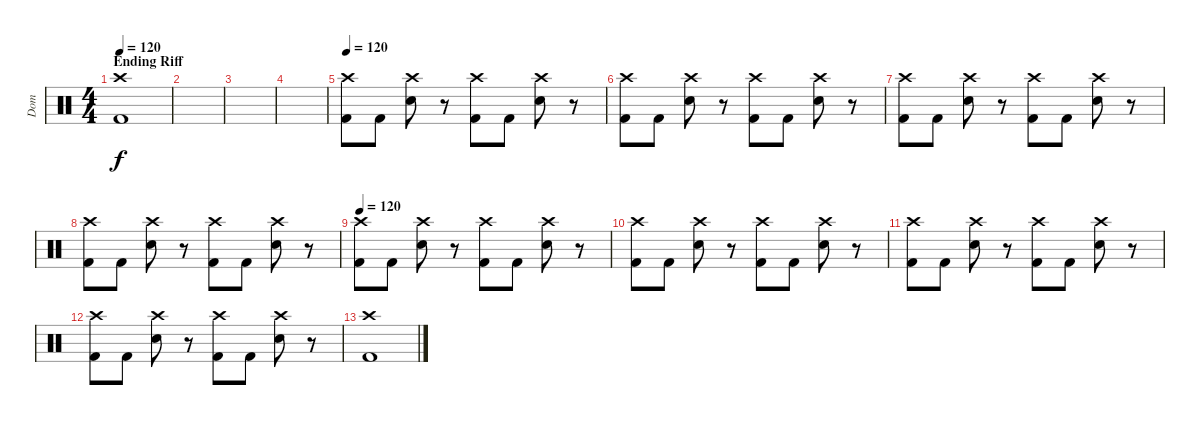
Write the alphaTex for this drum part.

\track ("Dom" "Dom") {instrument percussion}
\staff {score}
\articulation defaults
\ts (4 4)
\section ("" "Ending Riff")
\tempo 120
\clef neutral
\ks c
("Kick (hit) 2" "Crash high (hit)").1{dy f} |
|
|
|
\tempo 120
("Crash high (hit)" "Kick (hit) 2").8 "Kick (hit) 2".8 ("Crash high (hit)" "Electric Snare (hit)").8 r.8 ("Crash high (hit)" "Kick (hit) 2").8 "Kick (hit) 2".8 ("Crash high (hit)" "Electric Snare (hit)").8 r.8 |
("Crash high (hit)" "Kick (hit) 2").8 "Kick (hit) 2".8 ("Crash high (hit)" "Electric Snare (hit)").8 r.8 ("Crash high (hit)" "Kick (hit) 2").8 "Kick (hit) 2".8 ("Crash high (hit)" "Electric Snare (hit)").8 r.8 |
("Crash high (hit)" "Kick (hit) 2").8 "Kick (hit) 2".8 ("Crash high (hit)" "Electric Snare (hit)").8 r.8 ("Crash high (hit)" "Kick (hit) 2").8 "Kick (hit) 2".8 ("Crash high (hit)" "Electric Snare (hit)").8 r.8 |
("Crash high (hit)" "Kick (hit) 2").8 "Kick (hit) 2".8 ("Crash high (hit)" "Electric Snare (hit)").8 r.8 ("Crash high (hit)" "Kick (hit) 2").8 "Kick (hit) 2".8 ("Crash high (hit)" "Electric Snare (hit)").8 r.8 |
\tempo 120
("Crash high (hit)" "Kick (hit) 2").8 "Kick (hit) 2".8 ("Crash high (hit)" "Electric Snare (hit)").8 r.8 ("Crash high (hit)" "Kick (hit) 2").8 "Kick (hit) 2".8 ("Crash high (hit)" "Electric Snare (hit)").8 r.8 |
("Crash high (hit)" "Kick (hit) 2").8 "Kick (hit) 2".8 ("Crash high (hit)" "Electric Snare (hit)").8 r.8 ("Crash high (hit)" "Kick (hit) 2").8 "Kick (hit) 2".8 ("Crash high (hit)" "Electric Snare (hit)").8 r.8 |
("Crash high (hit)" "Kick (hit) 2").8 "Kick (hit) 2".8 ("Crash high (hit)" "Electric Snare (hit)").8 r.8 ("Crash high (hit)" "Kick (hit) 2").8 "Kick (hit) 2".8 ("Crash high (hit)" "Electric Snare (hit)").8 r.8 |
("Crash high (hit)" "Kick (hit) 2").8 "Kick (hit) 2".8 ("Crash high (hit)" "Electric Snare (hit)").8 r.8 ("Crash high (hit)" "Kick (hit) 2").8 "Kick (hit) 2".8 ("Crash high (hit)" "Electric Snare (hit)").8 r.8 |
("Kick (hit) 2" "Crash high (hit)").1
